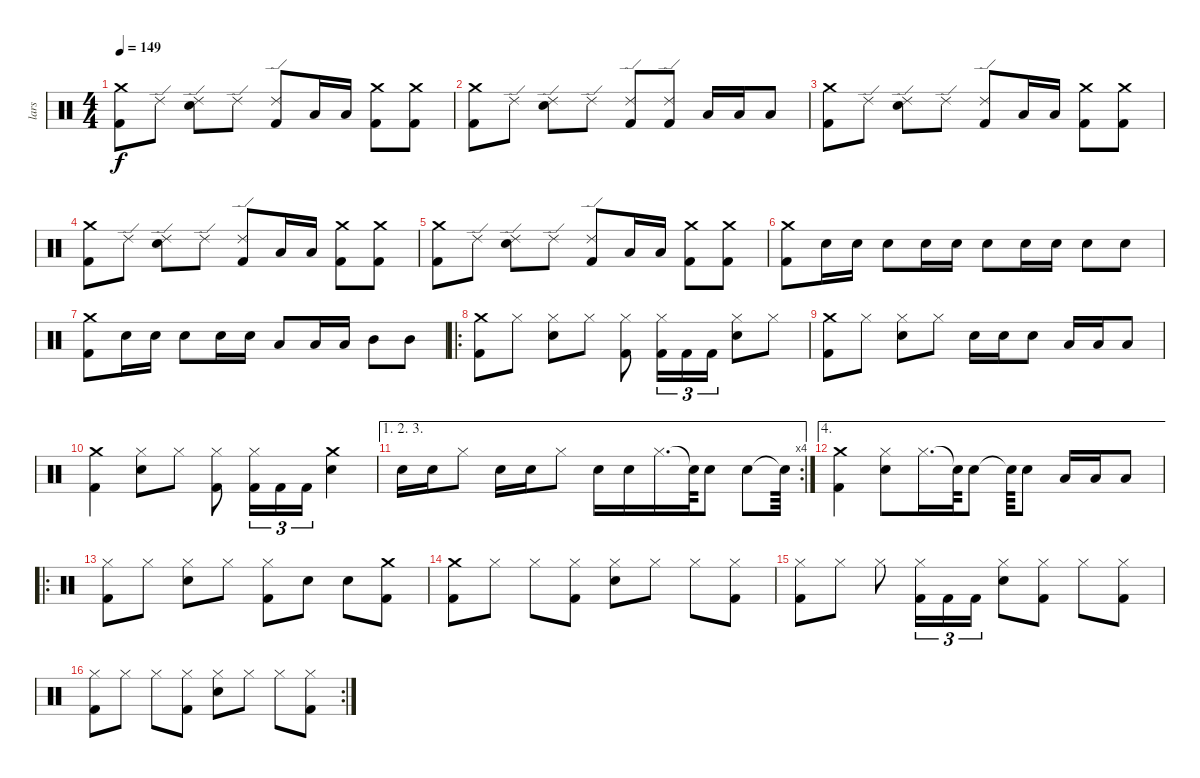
\track ("lars" "lars") {instrument percussion}
\staff {score}
\articulation defaults
\ts (4 4)
\tempo 149
\clef neutral
\ks c
("Crash medium (hit)" "Kick (hit) 2").8{dy f} "Ride (edge) 2".8 ("Snare (hit) 2" "Ride (edge) 2").8 "Ride (edge) 2".8 ("Ride (edge) 2" "Kick (hit) 2").8 "Low Tom (hit)".16 "Low Tom (hit)".16 ("Crash medium (hit)" "Kick (hit) 2").8 ("Crash medium (hit)" "Kick (hit) 2").8 |
("Crash medium (hit)" "Kick (hit) 2").8 "Ride (edge) 2".8 ("Snare (hit) 2" "Ride (edge) 2").8 "Ride (edge) 2".8 ("Kick (hit) 2" "Ride (edge) 2").8 ("Ride (edge) 2" "Kick (hit) 2").8 "Low Tom (hit)".16 "Low Tom (hit)".16 "Low Tom (hit)".8 |
("Crash medium (hit)" "Kick (hit) 2").8 "Ride (edge) 2".8 ("Snare (hit) 2" "Ride (edge) 2").8 "Ride (edge) 2".8 ("Ride (edge) 2" "Kick (hit) 2").8 "Low Tom (hit)".16 "Low Tom (hit)".16 ("Crash medium (hit)" "Kick (hit) 2").8 ("Crash medium (hit)" "Kick (hit) 2").8 |
("Crash medium (hit)" "Kick (hit) 2").8 "Ride (edge) 2".8 ("Snare (hit) 2" "Ride (edge) 2").8 "Ride (edge) 2".8 ("Ride (edge) 2" "Kick (hit) 2").8 "Low Tom (hit)".16 "Low Tom (hit)".16 ("Crash medium (hit)" "Kick (hit) 2").8 ("Crash medium (hit)" "Kick (hit) 2").8 |
("Crash medium (hit)" "Kick (hit) 2").8 "Ride (edge) 2".8 ("Snare (hit) 2" "Ride (edge) 2").8 "Ride (edge) 2".8 ("Ride (edge) 2" "Kick (hit) 2").8 "Low Tom (hit)".16 "Low Tom (hit)".16 ("Crash medium (hit)" "Kick (hit) 2").8 ("Crash medium (hit)" "Kick (hit) 2").8 |
("Kick (hit) 2" "Crash medium (hit)").8 "Snare (hit) 2".16 "Snare (hit) 2".16 "Snare (hit) 2".8 "Snare (hit) 2".16 "Snare (hit) 2".16 "Snare (hit) 2".8 "Snare (hit) 2".16 "Snare (hit) 2".16 "Snare (hit) 2".8 "Snare (hit) 2".8 |
("Crash medium (hit)" "Kick (hit) 2").8 "Snare (hit) 2".16 "Snare (hit) 2".16 "Snare (hit) 2".8 "Snare (hit) 2".16 "Snare (hit) 2".16 "Low Tom (hit)".8 "Low Tom (hit)".16 "Low Tom (hit)".16 "Mid Tom (hit)".8 "Mid Tom (hit)".8 |
\ro
("Crash medium (hit)" "Kick (hit) 2").8 "Hi-Hat (closed)".8 ("Snare (hit) 2" "Hi-Hat (closed)").8 "Hi-Hat (closed)".8 ("Kick (hit) 2" "Hi-Hat (closed)").8 ("Kick (hit) 2" "Hi-Hat (closed)").16{tu (3 2)} "Kick (hit) 2".16{tu (3 2)} "Kick (hit) 2".16{tu (3 2)} ("Snare (hit) 2" "Hi-Hat (closed)").8 "Hi-Hat (closed)".8 |
("Kick (hit) 2" "Crash medium (hit)").8 "Hi-Hat (closed)".8 ("Snare (hit) 2" "Hi-Hat (closed)").8 "Hi-Hat (closed)".8 "Snare (hit) 2".16 "Snare (hit) 2".16 "Snare (hit) 2".8 "Low Tom (hit)".16 "Low Tom (hit)".16 "Low Tom (hit)".8 |
("Kick (hit) 2" "Crash medium (hit)").4 ("Snare (hit) 2" "Hi-Hat (closed)").8 "Hi-Hat (closed)".8 ("Hi-Hat (closed)" "Kick (hit) 2").8 ("Hi-Hat (closed)" "Kick (hit) 2").16{tu (3 2)} "Kick (hit) 2".16{tu (3 2)} "Kick (hit) 2".16{tu (3 2)} ("Snare (hit) 2" "Crash medium (hit)").4 |
\ae (1 2 3)
\rc 4 "Snare (hit) 2".16 "Snare (hit) 2".16 "Hi-Hat (closed)".8 "Snare (hit) 2".16 "Snare (hit) 2".16 "Hi-Hat (closed)".8 "Snare (hit) 2".16 "Snare (hit) 2".16 "Hi-Hat (closed)".16{d} "Snare (hit)"{t}.64 "Snare (hit) 2".8 "Snare (hit) 2".8 "Snare (hit)"{t}.64
|
\ae 4
("Kick (hit) 2" "Crash medium (hit)").4 ("Hi-Hat (closed)" "Snare (hit) 2").8 "Hi-Hat (closed)".16{d} "Snare (hit)"{t}.64 "Snare (hit) 2".8 "Snare (hit)"{t}.64 "Snare (hit) 2".8 "Low Tom (hit)".16 "Low Tom (hit)".16 "Low Tom (hit)".8 |
\ro
("Hi-Hat (closed)" "Kick (hit) 2").8 "Hi-Hat (closed)".8 ("Snare (hit) 2" "Hi-Hat (closed)").8 "Hi-Hat (closed)".8 ("Hi-Hat (closed)" "Kick (hit) 2").8 "Snare (hit) 2".8 "Snare (hit) 2".8 ("Crash medium (hit)" "Kick (hit) 2").8 |
("Kick (hit) 2" "Crash medium (hit)").8 "Hi-Hat (closed)".8 "Hi-Hat (closed)".8 ("Kick (hit) 2" "Hi-Hat (closed)").8 ("Hi-Hat (closed)" "Snare (hit) 2").8 "Hi-Hat (closed)".8 "Hi-Hat (closed)".8 ("Kick (hit) 2" "Hi-Hat (closed)").8 |
("Hi-Hat (closed)" "Kick (hit) 2").8 "Hi-Hat (closed)".8 "Hi-Hat (closed)".8 ("Hi-Hat (closed)" "Kick (hit) 2").16{tu (3 2)} "Kick (hit) 2".16{tu (3 2)} "Kick (hit) 2".16{tu (3 2)} ("Snare (hit) 2" "Hi-Hat (closed)").8 ("Hi-Hat (closed)" "Kick (hit) 2").8 "Hi-Hat (closed)".8 ("Hi-Hat (closed)" "Kick (hit) 2").8 |
\rc 2
("Hi-Hat (closed)" "Kick (hit) 2").8 "Hi-Hat (closed)".8 "Hi-Hat (closed)".8 ("Kick (hit) 2" "Hi-Hat (closed)").8 ("Hi-Hat (closed)" "Snare (hit) 2").8 "Hi-Hat (closed)".8 "Hi-Hat (closed)".8 ("Kick (hit) 2" "Hi-Hat (closed)").8
